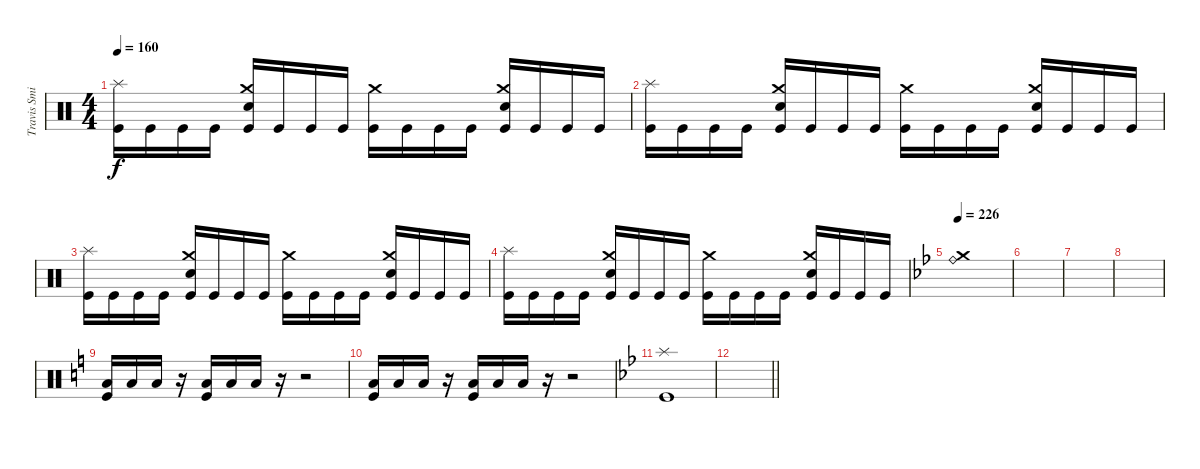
\track ("Travis Smith" "Travis Smi") {instrument percussion}
\staff {score}
\articulation defaults
\ts (4 4)
\tempo 160
\clef neutral
\ks c
("Splash (hit)" "Kick (hit)").16{dy f} "Kick (hit)".16 "Kick (hit)".16 "Kick (hit)".16 ("Crash medium (hit)" "Electric Snare (hit)" "Kick (hit)").16 "Kick (hit)".16 "Kick (hit)".16 "Kick (hit)".16 ("Crash medium (hit)" "Kick (hit)").16 "Kick (hit)".16 "Kick (hit)".16 "Kick (hit)".16 ("Crash medium (hit)" "Electric Snare (hit)" "Kick (hit)").16 "Kick (hit)".16 "Kick (hit)".16 "Kick (hit)".16 |
("Splash (hit)" "Kick (hit)").16 "Kick (hit)".16 "Kick (hit)".16 "Kick (hit)".16 ("Crash medium (hit)" "Electric Snare (hit)" "Kick (hit)").16 "Kick (hit)".16 "Kick (hit)".16 "Kick (hit)".16 ("Crash medium (hit)" "Kick (hit)").16 "Kick (hit)".16 "Kick (hit)".16 "Kick (hit)".16 ("Crash medium (hit)" "Electric Snare (hit)" "Kick (hit)").16 "Kick (hit)".16 "Kick (hit)".16 "Kick (hit)".16 |
("Splash (hit)" "Kick (hit)").16 "Kick (hit)".16 "Kick (hit)".16 "Kick (hit)".16 ("Crash medium (hit)" "Electric Snare (hit)" "Kick (hit)").16 "Kick (hit)".16 "Kick (hit)".16 "Kick (hit)".16 ("Crash medium (hit)" "Kick (hit)").16 "Kick (hit)".16 "Kick (hit)".16 "Kick (hit)".16 ("Crash medium (hit)" "Electric Snare (hit)" "Kick (hit)").16 "Kick (hit)".16 "Kick (hit)".16 "Kick (hit)".16 |
("Splash (hit)" "Kick (hit)").16 "Kick (hit)".16 "Kick (hit)".16 "Kick (hit)".16 ("Crash medium (hit)" "Electric Snare (hit)" "Kick (hit)").16 "Kick (hit)".16 "Kick (hit)".16 "Kick (hit)".16 ("Crash medium (hit)" "Kick (hit)").16 "Kick (hit)".16 "Kick (hit)".16 "Kick (hit)".16 ("Crash medium (hit)" "Electric Snare (hit)" "Kick (hit)").16 "Kick (hit)".16 "Kick (hit)".16 "Kick (hit)".16 |
\tempo 226
\ks bb
("Crash medium (hit)" "Ride (bell)").1 |
|
|
|
\ks c
("Low Floor Tom (hit)" "Kick (hit)").16 "Low Floor Tom (hit)".16 "Low Floor Tom (hit)".16 r.16 ("Low Floor Tom (hit)" "Kick (hit)").16 "Low Floor Tom (hit)".16 "Low Floor Tom (hit)".16 r.16 r.2 |
("Low Floor Tom (hit)" "Kick (hit)").16 "Low Floor Tom (hit)".16 "Low Floor Tom (hit)".16 r.16 ("Low Floor Tom (hit)" "Kick (hit)").16 "Low Floor Tom (hit)".16 "Low Floor Tom (hit)".16 r.16 r.2 |
\ks bb
("Splash (hit)" "Kick (hit)").1 |
\barLineRight lightlight
